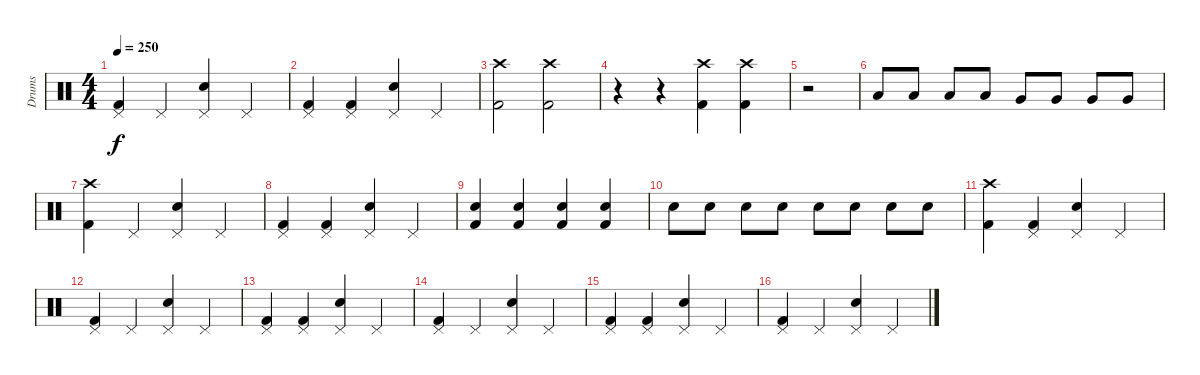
\track ("Drums" "Drums") {instrument percussion}
\staff {score}
\articulation defaults
\ts (4 4)
\tempo 250
\clef neutral
\ks c
("Pedal Hi-Hat (hit)" "Kick (hit) 2").4{dy f} "Pedal Hi-Hat (hit)".4 ("Pedal Hi-Hat (hit)" "Electric Snare (hit)").4 "Pedal Hi-Hat (hit)".4 |
("Pedal Hi-Hat (hit)" "Kick (hit) 2").4 ("Pedal Hi-Hat (hit)" "Kick (hit) 2").4 ("Pedal Hi-Hat (hit)" "Electric Snare (hit)").4 "Pedal Hi-Hat (hit)".4 |
("Kick (hit) 2" "Crash high (hit)").2 ("Kick (hit) 2" "Crash high (hit)").2 |
r.4 r.4 ("Kick (hit) 2" "Crash high (hit)").4 ("Kick (hit) 2" "Crash high (hit)").4 |
r.2 |
"Low Tom (hit)".8 "Low Tom (hit)".8 "Low Tom (hit)".8 "Low Tom (hit)".8 "Very Low Tom (hit)".8 "Very Low Tom (hit)".8 "Very Low Tom (hit)".8 "Very Low Tom (hit)".8 |
("Kick (hit) 2" "Crash high (hit)").4 "Pedal Hi-Hat (hit)".4 ("Pedal Hi-Hat (hit)" "Electric Snare (hit)").4 "Pedal Hi-Hat (hit)".4 |
("Pedal Hi-Hat (hit)" "Kick (hit) 2").4 ("Pedal Hi-Hat (hit)" "Kick (hit) 2").4 ("Pedal Hi-Hat (hit)" "Electric Snare (hit)").4 "Pedal Hi-Hat (hit)".4 |
("Kick (hit) 2" "Electric Snare (hit)").4 ("Kick (hit) 2" "Electric Snare (hit)").4 ("Kick (hit) 2" "Electric Snare (hit)").4 ("Kick (hit) 2" "Electric Snare (hit)").4 |
"Electric Snare (hit)".8 "Electric Snare (hit)".8 "Electric Snare (hit)".8 "Electric Snare (hit)".8 "Electric Snare (hit)".8 "Electric Snare (hit)".8 "Electric Snare (hit)".8 "Electric Snare (hit)".8 |
("Kick (hit) 2" "Crash high (hit)").4 ("Pedal Hi-Hat (hit)" "Kick (hit) 2").4 ("Pedal Hi-Hat (hit)" "Electric Snare (hit)").4 "Pedal Hi-Hat (hit)".4 |
("Pedal Hi-Hat (hit)" "Kick (hit) 2").4 "Pedal Hi-Hat (hit)".4 ("Pedal Hi-Hat (hit)" "Electric Snare (hit)").4 "Pedal Hi-Hat (hit)".4 |
("Pedal Hi-Hat (hit)" "Kick (hit) 2").4 ("Pedal Hi-Hat (hit)" "Kick (hit) 2").4 ("Pedal Hi-Hat (hit)" "Electric Snare (hit)").4 "Pedal Hi-Hat (hit)".4 |
("Pedal Hi-Hat (hit)" "Kick (hit) 2").4 "Pedal Hi-Hat (hit)".4 ("Pedal Hi-Hat (hit)" "Electric Snare (hit)").4 "Pedal Hi-Hat (hit)".4 |
("Pedal Hi-Hat (hit)" "Kick (hit) 2").4 ("Pedal Hi-Hat (hit)" "Kick (hit) 2").4 ("Pedal Hi-Hat (hit)" "Electric Snare (hit)").4 "Pedal Hi-Hat (hit)".4 |
("Pedal Hi-Hat (hit)" "Kick (hit) 2").4 "Pedal Hi-Hat (hit)".4 ("Pedal Hi-Hat (hit)" "Electric Snare (hit)").4 "Pedal Hi-Hat (hit)".4
